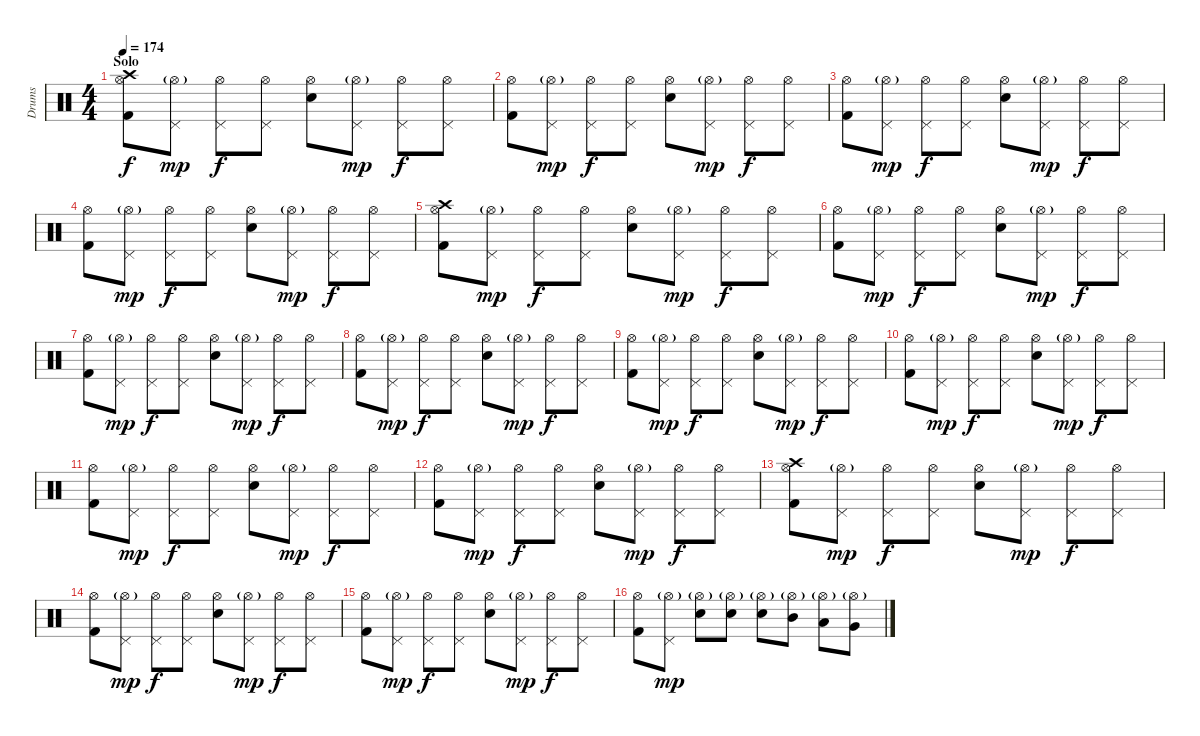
\track ("Drums" "Drums") {instrument percussion}
\staff {score}
\articulation defaults
\ts (4 4)
\section ("" "Solo")
\tempo 174
\clef neutral
\ks c
("Kick (hit) 2" "Hi-Hat (open)" "Crash high (hit)").8{dy f} ("Pedal Hi-Hat (hit)" "Hi-Hat (open)"{g}).8{dy mp} ("Pedal Hi-Hat (hit)" "Hi-Hat (open)").8{dy f} ("Pedal Hi-Hat (hit)" "Hi-Hat (open)").8 ("Snare (hit) 2" "Hi-Hat (open)").8 ("Pedal Hi-Hat (hit)" "Hi-Hat (open)"{g}).8{dy mp} ("Pedal Hi-Hat (hit)" "Hi-Hat (open)").8{dy f} ("Pedal Hi-Hat (hit)" "Hi-Hat (open)").8 |
("Kick (hit) 2" "Hi-Hat (open)").8 ("Pedal Hi-Hat (hit)" "Hi-Hat (open)"{g}).8{dy mp} ("Pedal Hi-Hat (hit)" "Hi-Hat (open)").8{dy f} ("Pedal Hi-Hat (hit)" "Hi-Hat (open)").8 ("Snare (hit) 2" "Hi-Hat (open)").8 ("Pedal Hi-Hat (hit)" "Hi-Hat (open)"{g}).8{dy mp} ("Pedal Hi-Hat (hit)" "Hi-Hat (open)").8{dy f} ("Pedal Hi-Hat (hit)" "Hi-Hat (open)").8 |
("Kick (hit) 2" "Hi-Hat (open)").8 ("Pedal Hi-Hat (hit)" "Hi-Hat (open)"{g}).8{dy mp} ("Pedal Hi-Hat (hit)" "Hi-Hat (open)").8{dy f} ("Pedal Hi-Hat (hit)" "Hi-Hat (open)").8 ("Snare (hit) 2" "Hi-Hat (open)").8 ("Pedal Hi-Hat (hit)" "Hi-Hat (open)"{g}).8{dy mp} ("Pedal Hi-Hat (hit)" "Hi-Hat (open)").8{dy f} ("Pedal Hi-Hat (hit)" "Hi-Hat (open)").8 |
("Kick (hit) 2" "Hi-Hat (open)").8 ("Pedal Hi-Hat (hit)" "Hi-Hat (open)"{g}).8{dy mp} ("Pedal Hi-Hat (hit)" "Hi-Hat (open)").8{dy f} ("Pedal Hi-Hat (hit)" "Hi-Hat (open)").8 ("Snare (hit) 2" "Hi-Hat (open)").8 ("Pedal Hi-Hat (hit)" "Hi-Hat (open)"{g}).8{dy mp} ("Pedal Hi-Hat (hit)" "Hi-Hat (open)").8{dy f} ("Pedal Hi-Hat (hit)" "Hi-Hat (open)").8 |
("Kick (hit) 2" "Hi-Hat (open)" "Crash high (hit)").8 ("Pedal Hi-Hat (hit)" "Hi-Hat (open)"{g}).8{dy mp} ("Pedal Hi-Hat (hit)" "Hi-Hat (open)").8{dy f} ("Pedal Hi-Hat (hit)" "Hi-Hat (open)").8 ("Snare (hit) 2" "Hi-Hat (open)").8 ("Pedal Hi-Hat (hit)" "Hi-Hat (open)"{g}).8{dy mp} ("Pedal Hi-Hat (hit)" "Hi-Hat (open)").8{dy f} ("Pedal Hi-Hat (hit)" "Hi-Hat (open)").8 |
("Kick (hit) 2" "Hi-Hat (open)").8 ("Pedal Hi-Hat (hit)" "Hi-Hat (open)"{g}).8{dy mp} ("Pedal Hi-Hat (hit)" "Hi-Hat (open)").8{dy f} ("Pedal Hi-Hat (hit)" "Hi-Hat (open)").8 ("Snare (hit) 2" "Hi-Hat (open)").8 ("Pedal Hi-Hat (hit)" "Hi-Hat (open)"{g}).8{dy mp} ("Pedal Hi-Hat (hit)" "Hi-Hat (open)").8{dy f} ("Pedal Hi-Hat (hit)" "Hi-Hat (open)").8 |
("Kick (hit) 2" "Hi-Hat (open)").8 ("Pedal Hi-Hat (hit)" "Hi-Hat (open)"{g}).8{dy mp} ("Pedal Hi-Hat (hit)" "Hi-Hat (open)").8{dy f} ("Pedal Hi-Hat (hit)" "Hi-Hat (open)").8 ("Snare (hit) 2" "Hi-Hat (open)").8 ("Pedal Hi-Hat (hit)" "Hi-Hat (open)"{g}).8{dy mp} ("Pedal Hi-Hat (hit)" "Hi-Hat (open)").8{dy f} ("Pedal Hi-Hat (hit)" "Hi-Hat (open)").8 |
("Kick (hit) 2" "Hi-Hat (open)").8 ("Pedal Hi-Hat (hit)" "Hi-Hat (open)"{g}).8{dy mp} ("Pedal Hi-Hat (hit)" "Hi-Hat (open)").8{dy f} ("Pedal Hi-Hat (hit)" "Hi-Hat (open)").8 ("Snare (hit) 2" "Hi-Hat (open)").8 ("Pedal Hi-Hat (hit)" "Hi-Hat (open)"{g}).8{dy mp} ("Pedal Hi-Hat (hit)" "Hi-Hat (open)").8{dy f} ("Pedal Hi-Hat (hit)" "Hi-Hat (open)").8 |
("Kick (hit) 2" "Hi-Hat (open)").8 ("Pedal Hi-Hat (hit)" "Hi-Hat (open)"{g}).8{dy mp} ("Pedal Hi-Hat (hit)" "Hi-Hat (open)").8{dy f} ("Pedal Hi-Hat (hit)" "Hi-Hat (open)").8 ("Snare (hit) 2" "Hi-Hat (open)").8 ("Pedal Hi-Hat (hit)" "Hi-Hat (open)"{g}).8{dy mp} ("Pedal Hi-Hat (hit)" "Hi-Hat (open)").8{dy f} ("Pedal Hi-Hat (hit)" "Hi-Hat (open)").8 |
("Kick (hit) 2" "Hi-Hat (open)").8 ("Pedal Hi-Hat (hit)" "Hi-Hat (open)"{g}).8{dy mp} ("Pedal Hi-Hat (hit)" "Hi-Hat (open)").8{dy f} ("Pedal Hi-Hat (hit)" "Hi-Hat (open)").8 ("Snare (hit) 2" "Hi-Hat (open)").8 ("Pedal Hi-Hat (hit)" "Hi-Hat (open)"{g}).8{dy mp} ("Pedal Hi-Hat (hit)" "Hi-Hat (open)").8{dy f} ("Pedal Hi-Hat (hit)" "Hi-Hat (open)").8 |
("Kick (hit) 2" "Hi-Hat (open)").8 ("Pedal Hi-Hat (hit)" "Hi-Hat (open)"{g}).8{dy mp} ("Pedal Hi-Hat (hit)" "Hi-Hat (open)").8{dy f} ("Pedal Hi-Hat (hit)" "Hi-Hat (open)").8 ("Snare (hit) 2" "Hi-Hat (open)").8 ("Pedal Hi-Hat (hit)" "Hi-Hat (open)"{g}).8{dy mp} ("Pedal Hi-Hat (hit)" "Hi-Hat (open)").8{dy f} ("Pedal Hi-Hat (hit)" "Hi-Hat (open)").8 |
("Kick (hit) 2" "Hi-Hat (open)").8 ("Pedal Hi-Hat (hit)" "Hi-Hat (open)"{g}).8{dy mp} ("Pedal Hi-Hat (hit)" "Hi-Hat (open)").8{dy f} ("Pedal Hi-Hat (hit)" "Hi-Hat (open)").8 ("Snare (hit) 2" "Hi-Hat (open)").8 ("Pedal Hi-Hat (hit)" "Hi-Hat (open)"{g}).8{dy mp} ("Pedal Hi-Hat (hit)" "Hi-Hat (open)").8{dy f} ("Pedal Hi-Hat (hit)" "Hi-Hat (open)").8 |
("Kick (hit) 2" "Hi-Hat (open)" "Crash high (hit)").8 ("Pedal Hi-Hat (hit)" "Hi-Hat (open)"{g}).8{dy mp} ("Pedal Hi-Hat (hit)" "Hi-Hat (open)").8{dy f} ("Pedal Hi-Hat (hit)" "Hi-Hat (open)").8 ("Snare (hit) 2" "Hi-Hat (open)").8 ("Pedal Hi-Hat (hit)" "Hi-Hat (open)"{g}).8{dy mp} ("Pedal Hi-Hat (hit)" "Hi-Hat (open)").8{dy f} ("Pedal Hi-Hat (hit)" "Hi-Hat (open)").8 |
("Kick (hit) 2" "Hi-Hat (open)").8 ("Pedal Hi-Hat (hit)" "Hi-Hat (open)"{g}).8{dy mp} ("Pedal Hi-Hat (hit)" "Hi-Hat (open)").8{dy f} ("Pedal Hi-Hat (hit)" "Hi-Hat (open)").8 ("Snare (hit) 2" "Hi-Hat (open)").8 ("Pedal Hi-Hat (hit)" "Hi-Hat (open)"{g}).8{dy mp} ("Pedal Hi-Hat (hit)" "Hi-Hat (open)").8{dy f} ("Pedal Hi-Hat (hit)" "Hi-Hat (open)").8 |
("Kick (hit) 2" "Hi-Hat (open)").8 ("Pedal Hi-Hat (hit)" "Hi-Hat (open)"{g}).8{dy mp} ("Pedal Hi-Hat (hit)" "Hi-Hat (open)").8{dy f} ("Pedal Hi-Hat (hit)" "Hi-Hat (open)").8 ("Snare (hit) 2" "Hi-Hat (open)").8 ("Pedal Hi-Hat (hit)" "Hi-Hat (open)"{g}).8{dy mp} ("Pedal Hi-Hat (hit)" "Hi-Hat (open)").8{dy f} ("Pedal Hi-Hat (hit)" "Hi-Hat (open)").8 |
("Kick (hit) 2" "Hi-Hat (open)").8 ("Pedal Hi-Hat (hit)" "Hi-Hat (open)"{g}).8{dy mp} ("Snare (hit) 2" "Hi-Hat (open)"{g}).8 ("Snare (hit) 2" "Hi-Hat (open)"{g}).8 ("Snare (hit) 2" "Hi-Hat (open)"{g}).8 ("Mid Tom (hit)" "Hi-Hat (open)"{g}).8 ("Low Tom (hit)" "Hi-Hat (open)"{g}).8 ("Very Low Tom (hit)" "Hi-Hat (open)"{g}).8
